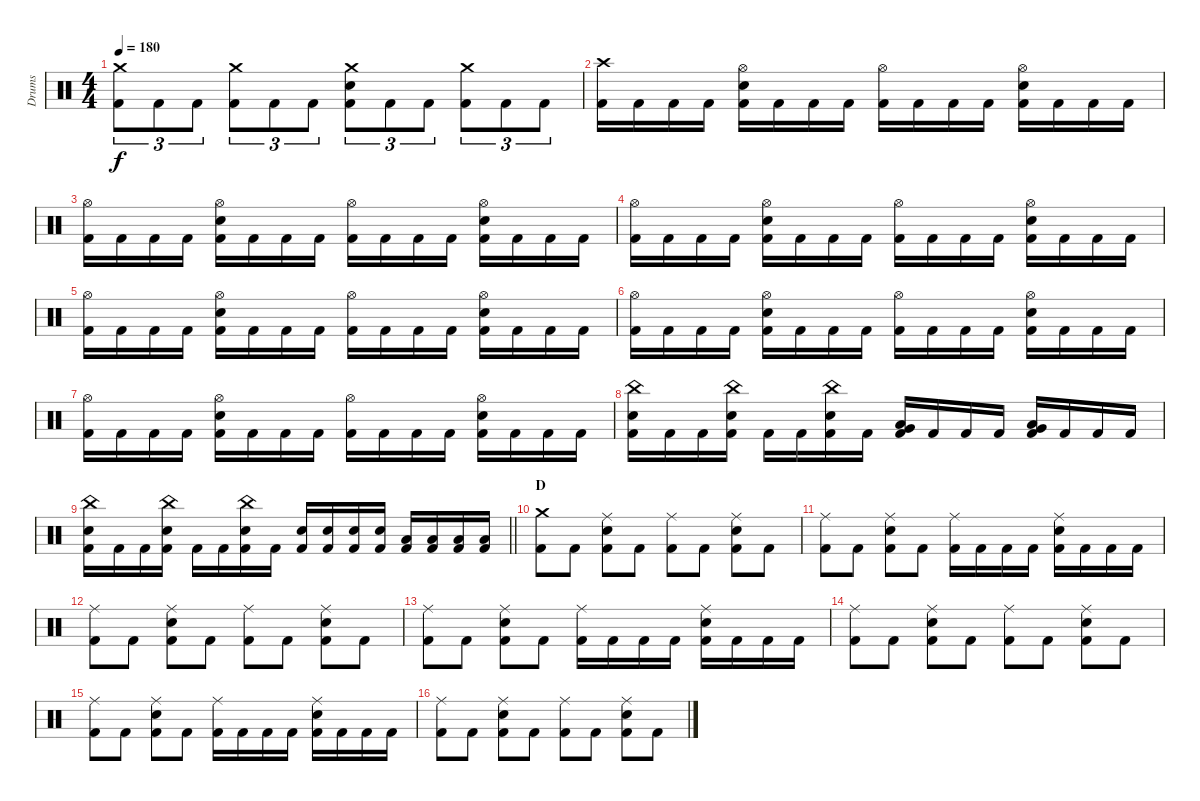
\track ("Drums" "Drums") {instrument percussion}
\staff {score}
\articulation defaults
\ts (4 4)
\tempo 180
\clef neutral
\ks c
("Crash medium (hit)" "Kick (hit) 2").8{tu (3 2) dy f} "Kick (hit) 2".8{tu (3 2)} "Kick (hit) 2".8{tu (3 2)} ("Crash medium (hit)" "Kick (hit) 2").8{tu (3 2)} "Kick (hit) 2".8{tu (3 2)} "Kick (hit) 2".8{tu (3 2)} ("Crash medium (hit)" "Electric Snare (hit)" "Kick (hit) 2").8{tu (3 2)} "Kick (hit) 2".8{tu (3 2)} "Kick (hit) 2".8{tu (3 2)} ("Crash medium (hit)" "Kick (hit) 2").8{tu (3 2)} "Kick (hit) 2".8{tu (3 2)} "Kick (hit) 2".8{tu (3 2)} |
("Crash high (hit)" "Kick (hit) 2").16 "Kick (hit) 2".16 "Kick (hit) 2".16 "Kick (hit) 2".16 ("Hi-Hat (open)" "Electric Snare (hit)" "Kick (hit) 2").16 "Kick (hit) 2".16 "Kick (hit) 2".16 "Kick (hit) 2".16 ("Hi-Hat (open)" "Kick (hit) 2").16 "Kick (hit) 2".16 "Kick (hit) 2".16 "Kick (hit) 2".16 ("Hi-Hat (open)" "Electric Snare (hit)" "Kick (hit) 2").16 "Kick (hit) 2".16 "Kick (hit) 2".16 "Kick (hit) 2".16 |
("Hi-Hat (open)" "Kick (hit) 2").16 "Kick (hit) 2".16 "Kick (hit) 2".16 "Kick (hit) 2".16 ("Hi-Hat (open)" "Electric Snare (hit)" "Kick (hit) 2").16 "Kick (hit) 2".16 "Kick (hit) 2".16 "Kick (hit) 2".16 ("Hi-Hat (open)" "Kick (hit) 2").16 "Kick (hit) 2".16 "Kick (hit) 2".16 "Kick (hit) 2".16 ("Hi-Hat (open)" "Electric Snare (hit)" "Kick (hit) 2").16 "Kick (hit) 2".16 "Kick (hit) 2".16 "Kick (hit) 2".16 |
("Hi-Hat (open)" "Kick (hit) 2").16 "Kick (hit) 2".16 "Kick (hit) 2".16 "Kick (hit) 2".16 ("Hi-Hat (open)" "Electric Snare (hit)" "Kick (hit) 2").16 "Kick (hit) 2".16 "Kick (hit) 2".16 "Kick (hit) 2".16 ("Hi-Hat (open)" "Kick (hit) 2").16 "Kick (hit) 2".16 "Kick (hit) 2".16 "Kick (hit) 2".16 ("Hi-Hat (open)" "Electric Snare (hit)" "Kick (hit) 2").16 "Kick (hit) 2".16 "Kick (hit) 2".16 "Kick (hit) 2".16 |
("Hi-Hat (open)" "Kick (hit) 2").16 "Kick (hit) 2".16 "Kick (hit) 2".16 "Kick (hit) 2".16 ("Hi-Hat (open)" "Electric Snare (hit)" "Kick (hit) 2").16 "Kick (hit) 2".16 "Kick (hit) 2".16 "Kick (hit) 2".16 ("Hi-Hat (open)" "Kick (hit) 2").16 "Kick (hit) 2".16 "Kick (hit) 2".16 "Kick (hit) 2".16 ("Hi-Hat (open)" "Electric Snare (hit)" "Kick (hit) 2").16 "Kick (hit) 2".16 "Kick (hit) 2".16 "Kick (hit) 2".16 |
("Hi-Hat (open)" "Kick (hit) 2").16 "Kick (hit) 2".16 "Kick (hit) 2".16 "Kick (hit) 2".16 ("Hi-Hat (open)" "Electric Snare (hit)" "Kick (hit) 2").16 "Kick (hit) 2".16 "Kick (hit) 2".16 "Kick (hit) 2".16 ("Hi-Hat (open)" "Kick (hit) 2").16 "Kick (hit) 2".16 "Kick (hit) 2".16 "Kick (hit) 2".16 ("Hi-Hat (open)" "Electric Snare (hit)" "Kick (hit) 2").16 "Kick (hit) 2".16 "Kick (hit) 2".16 "Kick (hit) 2".16 |
("Hi-Hat (open)" "Kick (hit) 2").16 "Kick (hit) 2".16 "Kick (hit) 2".16 "Kick (hit) 2".16 ("Hi-Hat (open)" "Electric Snare (hit)" "Kick (hit) 2").16 "Kick (hit) 2".16 "Kick (hit) 2".16 "Kick (hit) 2".16 ("Hi-Hat (open)" "Kick (hit) 2").16 "Kick (hit) 2".16 "Kick (hit) 2".16 "Kick (hit) 2".16 ("Hi-Hat (open)" "Electric Snare (hit)" "Kick (hit) 2").16 "Kick (hit) 2".16 "Kick (hit) 2".16 "Kick (hit) 2".16 |
("China (hit)" "Electric Snare (hit)" "Kick (hit) 2").16 "Kick (hit) 2".16 "Kick (hit) 2".16 ("China (hit)" "Electric Snare (hit)" "Kick (hit) 2").16 "Kick (hit) 2".16 "Kick (hit) 2".16 ("China (hit)" "Electric Snare (hit)" "Kick (hit) 2").16 "Kick (hit) 2".16 ("Low Tom (hit)" "Very Low Tom (hit)" "Kick (hit) 2").16 "Kick (hit) 2".16 "Kick (hit) 2".16 "Kick (hit) 2".16 ("Very Low Tom (hit)" "Low Floor Tom (hit)" "Kick (hit) 2").16 "Kick (hit) 2".16 "Kick (hit) 2".16 "Kick (hit) 2".16 |
\barLineRight lightlight
("China (hit)" "Electric Snare (hit)" "Kick (hit) 2").16 "Kick (hit) 2".16 "Kick (hit) 2".16 ("China (hit)" "Electric Snare (hit)" "Kick (hit) 2").16 "Kick (hit) 2".16 "Kick (hit) 2".16 ("China (hit)" "Electric Snare (hit)" "Kick (hit) 2").16 "Kick (hit) 2".16 ("Electric Snare (hit)" "Kick (hit) 2").16 ("Electric Snare (hit)" "Kick (hit) 2").16 ("Electric Snare (hit)" "Kick (hit) 2").16 ("Electric Snare (hit)" "Kick (hit) 2").16 ("Low Tom (hit)" "Kick (hit) 2").16 ("Low Tom (hit)" "Kick (hit) 2").16 ("Low Tom (hit)" "Kick (hit) 2").16 ("Low Tom (hit)" "Kick (hit) 2").16 |
\section ("" "D")
("Crash medium (hit)" "Kick (hit) 2").8 "Kick (hit) 2".8 ("Ride (middle)" "Electric Snare (hit)" "Kick (hit) 2").8 "Kick (hit) 2".8 ("Ride (middle)" "Kick (hit) 2").8 "Kick (hit) 2".8 ("Ride (middle)" "Electric Snare (hit)" "Kick (hit) 2").8 "Kick (hit) 2".8 |
("Ride (middle)" "Kick (hit) 2").8 "Kick (hit) 2".8 ("Ride (middle)" "Electric Snare (hit)" "Kick (hit) 2").8 "Kick (hit) 2".8 ("Ride (middle)" "Kick (hit) 2").16 "Kick (hit) 2".16 "Kick (hit) 2".16 "Kick (hit) 2".16 ("Ride (middle)" "Electric Snare (hit)" "Kick (hit) 2").16 "Kick (hit) 2".16 "Kick (hit) 2".16 "Kick (hit) 2".16 |
("Ride (middle)" "Kick (hit) 2").8 "Kick (hit) 2".8 ("Ride (middle)" "Electric Snare (hit)" "Kick (hit) 2").8 "Kick (hit) 2".8 ("Ride (middle)" "Kick (hit) 2").8 "Kick (hit) 2".8 ("Ride (middle)" "Electric Snare (hit)" "Kick (hit) 2").8 "Kick (hit) 2".8 |
("Ride (middle)" "Kick (hit) 2").8 "Kick (hit) 2".8 ("Ride (middle)" "Electric Snare (hit)" "Kick (hit) 2").8 "Kick (hit) 2".8 ("Ride (middle)" "Kick (hit) 2").16 "Kick (hit) 2".16 "Kick (hit) 2".16 "Kick (hit) 2".16 ("Ride (middle)" "Electric Snare (hit)" "Kick (hit) 2").16 "Kick (hit) 2".16 "Kick (hit) 2".16 "Kick (hit) 2".16 |
("Ride (middle)" "Kick (hit) 2").8 "Kick (hit) 2".8 ("Ride (middle)" "Electric Snare (hit)" "Kick (hit) 2").8 "Kick (hit) 2".8 ("Ride (middle)" "Kick (hit) 2").8 "Kick (hit) 2".8 ("Ride (middle)" "Electric Snare (hit)" "Kick (hit) 2").8 "Kick (hit) 2".8 |
("Ride (middle)" "Kick (hit) 2").8 "Kick (hit) 2".8 ("Ride (middle)" "Electric Snare (hit)" "Kick (hit) 2").8 "Kick (hit) 2".8 ("Ride (middle)" "Kick (hit) 2").16 "Kick (hit) 2".16 "Kick (hit) 2".16 "Kick (hit) 2".16 ("Ride (middle)" "Electric Snare (hit)" "Kick (hit) 2").16 "Kick (hit) 2".16 "Kick (hit) 2".16 "Kick (hit) 2".16 |
("Ride (middle)" "Kick (hit) 2").8 "Kick (hit) 2".8 ("Ride (middle)" "Electric Snare (hit)" "Kick (hit) 2").8 "Kick (hit) 2".8 ("Ride (middle)" "Kick (hit) 2").8 "Kick (hit) 2".8 ("Ride (middle)" "Electric Snare (hit)" "Kick (hit) 2").8 "Kick (hit) 2".8
